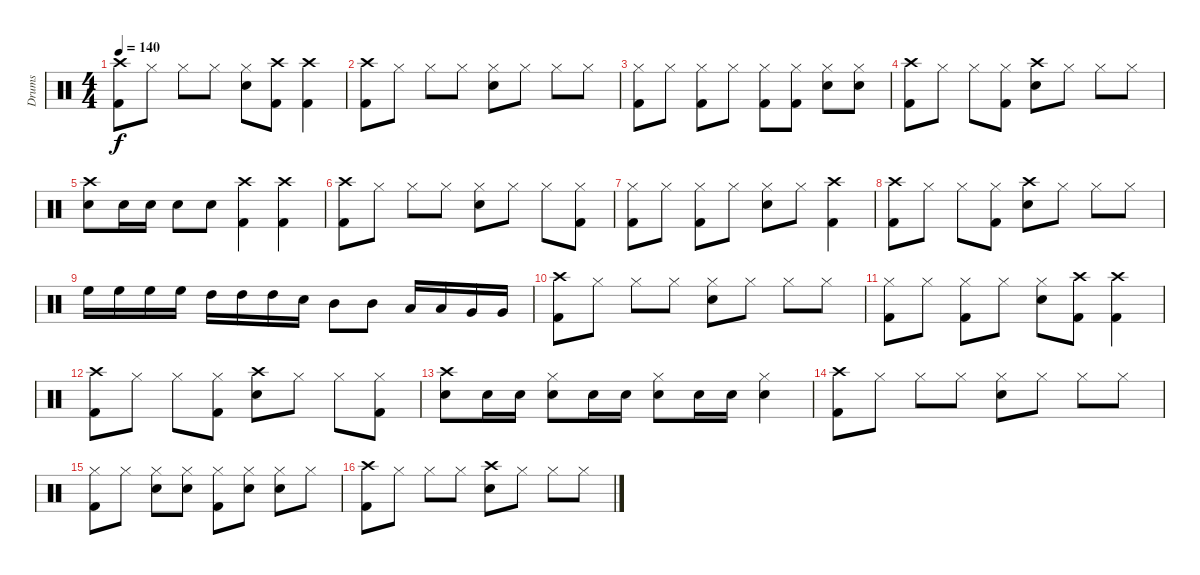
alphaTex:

\track ("Drums" "Drums") {instrument percussion}
\staff {score}
\articulation defaults
\ts (4 4)
\tempo 140
\clef neutral
\ks c
("Crash high (hit)" "Kick (hit) 2").8{dy f} "Hi-Hat (closed)".8 "Hi-Hat (closed)".8 "Hi-Hat (closed)".8 ("Hi-Hat (closed)" "Snare (hit) 2").8 ("Crash high (hit)" "Kick (hit) 2").8 ("Crash high (hit)" "Kick (hit) 2").4 |
("Crash high (hit)" "Kick (hit) 2").8 "Hi-Hat (closed)".8 "Hi-Hat (closed)".8 "Hi-Hat (closed)".8 ("Hi-Hat (closed)" "Snare (hit) 2").8 "Hi-Hat (closed)".8 "Hi-Hat (closed)".8 "Hi-Hat (closed)".8 |
("Hi-Hat (closed)" "Kick (hit) 2").8 "Hi-Hat (closed)".8 ("Hi-Hat (closed)" "Kick (hit) 2").8 "Hi-Hat (closed)".8 ("Hi-Hat (closed)" "Kick (hit) 2").8 ("Hi-Hat (closed)" "Kick (hit) 2").8 ("Hi-Hat (closed)" "Snare (hit) 2").8 ("Hi-Hat (closed)" "Snare (hit) 2").8 |
("Crash high (hit)" "Kick (hit) 2").8 "Hi-Hat (closed)".8 "Hi-Hat (closed)".8 ("Hi-Hat (closed)" "Kick (hit) 2").8 ("Crash high (hit)" "Snare (hit) 2").8 "Hi-Hat (closed)".8 "Hi-Hat (closed)".8 "Hi-Hat (closed)".8 |
("Crash high (hit)" "Snare (hit) 2").8 "Snare (hit) 2".16 "Snare (hit) 2".16 "Snare (hit) 2".8 "Snare (hit) 2".8 ("Crash high (hit)" "Kick (hit) 2").4 ("Crash high (hit)" "Kick (hit) 2").4 |
("Crash high (hit)" "Kick (hit) 2").8 "Hi-Hat (closed)".8 "Hi-Hat (closed)".8 "Hi-Hat (closed)".8 ("Hi-Hat (closed)" "Snare (hit) 2").8 "Hi-Hat (closed)".8 "Hi-Hat (closed)".8 ("Hi-Hat (closed)" "Kick (hit) 2").8 |
("Hi-Hat (closed)" "Kick (hit) 2").8 "Hi-Hat (closed)".8 ("Hi-Hat (closed)" "Kick (hit) 2").8 "Hi-Hat (closed)".8 ("Hi-Hat (closed)" "Snare (hit) 2").8 "Hi-Hat (closed)".8 ("Crash high (hit)" "Kick (hit) 2").4 |
("Crash high (hit)" "Kick (hit) 2").8 "Hi-Hat (closed)".8 "Hi-Hat (closed)".8 ("Hi-Hat (closed)" "Kick (hit) 2").8 ("Crash high (hit)" "Snare (hit) 2").8 "Hi-Hat (closed)".8 "Hi-Hat (closed)".8 "Hi-Hat (closed)".8 |
"High Floor Tom (hit)".16 "High Floor Tom (hit)".16 "High Floor Tom (hit)".16 "High Floor Tom (hit)".16 "High Tom (hit)".16 "High Tom (hit)".16 "High Tom (hit)".16 "Snare (hit) 2".16 "Mid Tom (hit)".8 "Mid Tom (hit)".8 "Low Tom (hit)".16 "Low Tom (hit)".16 "Very Low Tom (hit)".16 "Very Low Tom (hit)".16 |
("Crash high (hit)" "Kick (hit) 2").8 "Hi-Hat (closed)".8 "Hi-Hat (closed)".8 "Hi-Hat (closed)".8 ("Hi-Hat (closed)" "Snare (hit) 2").8 "Hi-Hat (closed)".8 "Hi-Hat (closed)".8 "Hi-Hat (closed)".8 |
("Hi-Hat (closed)" "Kick (hit) 2").8 "Hi-Hat (closed)".8 ("Hi-Hat (closed)" "Kick (hit) 2").8 "Hi-Hat (closed)".8 ("Hi-Hat (closed)" "Snare (hit) 2").8 ("Crash high (hit)" "Kick (hit) 2").8 ("Crash high (hit)" "Kick (hit) 2").4 |
("Crash high (hit)" "Kick (hit) 2").8 "Hi-Hat (closed)".8 "Hi-Hat (closed)".8 ("Hi-Hat (closed)" "Kick (hit) 2").8 ("Crash high (hit)" "Snare (hit) 2").8 "Hi-Hat (closed)".8 "Hi-Hat (closed)".8 ("Hi-Hat (closed)" "Kick (hit) 2").8 |
("Crash high (hit)" "Snare (hit) 2").8 "Snare (hit) 2".16 "Snare (hit) 2".16 ("Hi-Hat (closed)" "Snare (hit) 2").8 "Snare (hit) 2".16 "Snare (hit) 2".16 ("Hi-Hat (closed)" "Snare (hit) 2").8 "Snare (hit) 2".16 "Snare (hit) 2".16 ("Hi-Hat (closed)" "Snare (hit) 2").4 |
("Crash high (hit)" "Kick (hit) 2").8 "Hi-Hat (closed)".8 "Hi-Hat (closed)".8 "Hi-Hat (closed)".8 ("Hi-Hat (closed)" "Snare (hit) 2").8 "Hi-Hat (closed)".8 "Hi-Hat (closed)".8 "Hi-Hat (closed)".8 |
("Hi-Hat (closed)" "Kick (hit) 2").8 "Hi-Hat (closed)".8 ("Hi-Hat (closed)" "Snare (hit) 2").8 ("Hi-Hat (closed)" "Snare (hit) 2").8 ("Hi-Hat (closed)" "Kick (hit) 2").8 ("Hi-Hat (closed)" "Snare (hit) 2").8 ("Hi-Hat (closed)" "Snare (hit) 2").8 "Hi-Hat (closed)".8 |
("Crash high (hit)" "Kick (hit) 2").8 "Hi-Hat (closed)".8 "Hi-Hat (closed)".8 "Hi-Hat (closed)".8 ("Crash high (hit)" "Snare (hit) 2").8 "Hi-Hat (closed)".8 "Hi-Hat (closed)".8 "Hi-Hat (closed)".8
